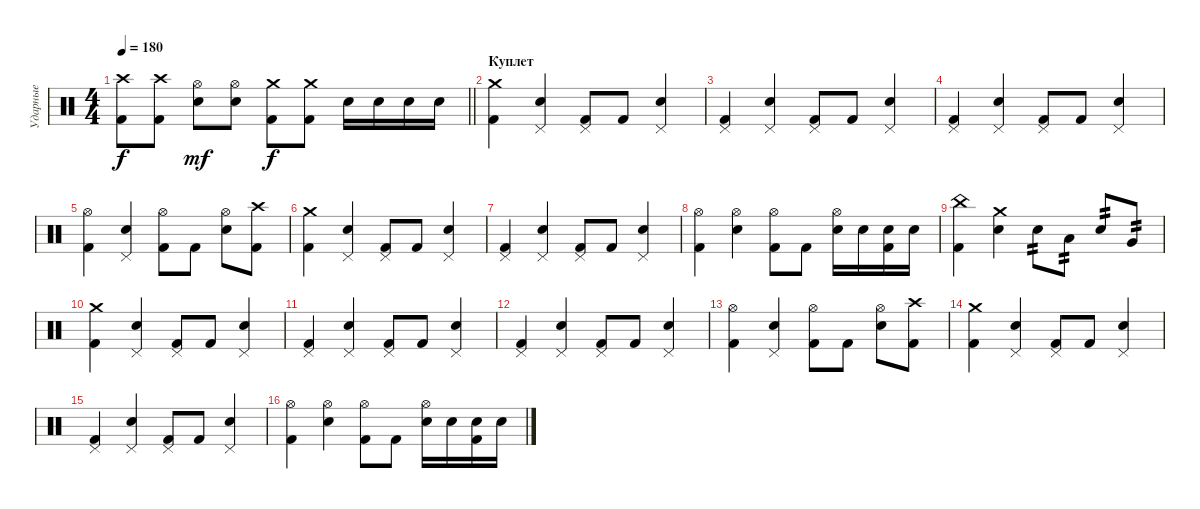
\track ("Ударные" "Ударные") {instrument percussion}
\staff {score}
\articulation defaults
\ts (4 4)
\tempo 180
\clef neutral
\barLineRight lightlight
\ks c
("Crash high (hit)" "Kick (hit) 2").8{dy f} ("Crash high (hit)" "Kick (hit) 2").8 ("Hi-Hat (open)" "Electric Snare (hit)").8{dy mf} ("Hi-Hat (open)" "Electric Snare (hit)").8 ("Crash medium (hit)" "Kick (hit) 2").8{dy f} ("Crash medium (hit)" "Kick (hit) 2").8 "Electric Snare (hit)".16 "Electric Snare (hit)".16 "Electric Snare (hit)".16 "Electric Snare (hit)".16 |
\section ("" "Куплет")
("Kick (hit) 2" "Crash medium (hit)").4 ("Electric Snare (hit)" "Pedal Hi-Hat (hit)").4 ("Kick (hit) 2" "Pedal Hi-Hat (hit)").8 "Kick (hit) 2".8 ("Electric Snare (hit)" "Pedal Hi-Hat (hit)").4 |
("Kick (hit) 2" "Pedal Hi-Hat (hit)").4 ("Electric Snare (hit)" "Pedal Hi-Hat (hit)").4 ("Kick (hit) 2" "Pedal Hi-Hat (hit)").8 "Kick (hit) 2".8 ("Electric Snare (hit)" "Pedal Hi-Hat (hit)").4 |
("Kick (hit) 2" "Pedal Hi-Hat (hit)").4 ("Electric Snare (hit)" "Pedal Hi-Hat (hit)").4 ("Kick (hit) 2" "Pedal Hi-Hat (hit)").8 "Kick (hit) 2".8 ("Electric Snare (hit)" "Pedal Hi-Hat (hit)").4 |
("Kick (hit) 2" "Hi-Hat (open)").4 ("Electric Snare (hit)" "Pedal Hi-Hat (hit)").4 ("Kick (hit) 2" "Hi-Hat (open)").8 "Kick (hit) 2".8 ("Electric Snare (hit)" "Hi-Hat (open)").8 ("Kick (hit) 2" "Crash high (hit)").8 |
("Kick (hit) 2" "Crash medium (hit)").4 ("Electric Snare (hit)" "Pedal Hi-Hat (hit)").4 ("Kick (hit) 2" "Pedal Hi-Hat (hit)").8 "Kick (hit) 2".8 ("Electric Snare (hit)" "Pedal Hi-Hat (hit)").4 |
("Kick (hit) 2" "Pedal Hi-Hat (hit)").4 ("Electric Snare (hit)" "Pedal Hi-Hat (hit)").4 ("Kick (hit) 2" "Pedal Hi-Hat (hit)").8 "Kick (hit) 2".8 ("Electric Snare (hit)" "Pedal Hi-Hat (hit)").4 |
("Kick (hit) 2" "Hi-Hat (open)").4 ("Electric Snare (hit)" "Hi-Hat (open)").4 ("Kick (hit) 2" "Hi-Hat (open)").8 "Kick (hit) 2".8 ("Electric Snare (hit)" "Hi-Hat (open)").16 "Electric Snare (hit)".16 ("Electric Snare (hit)" "Kick (hit) 2").16 "Electric Snare (hit)".16 |
("Kick (hit) 2" "China (hit)").4 ("Electric Snare (hit)" "Crash medium (hit)").4 "Electric Snare (hit)".8{tp 2} "Low Tom (hit)".8{tp 2} "Electric Snare (hit)".8{tp 2} "Very Low Tom (hit)".8{tp 2} |
("Kick (hit) 2" "Crash medium (hit)").4 ("Electric Snare (hit)" "Pedal Hi-Hat (hit)").4 ("Kick (hit) 2" "Pedal Hi-Hat (hit)").8 "Kick (hit) 2".8 ("Electric Snare (hit)" "Pedal Hi-Hat (hit)").4 |
("Kick (hit) 2" "Pedal Hi-Hat (hit)").4 ("Electric Snare (hit)" "Pedal Hi-Hat (hit)").4 ("Kick (hit) 2" "Pedal Hi-Hat (hit)").8 "Kick (hit) 2".8 ("Electric Snare (hit)" "Pedal Hi-Hat (hit)").4 |
("Kick (hit) 2" "Pedal Hi-Hat (hit)").4 ("Electric Snare (hit)" "Pedal Hi-Hat (hit)").4 ("Kick (hit) 2" "Pedal Hi-Hat (hit)").8 "Kick (hit) 2".8 ("Electric Snare (hit)" "Pedal Hi-Hat (hit)").4 |
("Kick (hit) 2" "Hi-Hat (open)").4 ("Electric Snare (hit)" "Pedal Hi-Hat (hit)").4 ("Kick (hit) 2" "Hi-Hat (open)").8 "Kick (hit) 2".8 ("Electric Snare (hit)" "Hi-Hat (open)").8 ("Kick (hit) 2" "Crash high (hit)").8 |
("Kick (hit) 2" "Crash medium (hit)").4 ("Electric Snare (hit)" "Pedal Hi-Hat (hit)").4 ("Kick (hit) 2" "Pedal Hi-Hat (hit)").8 "Kick (hit) 2".8 ("Electric Snare (hit)" "Pedal Hi-Hat (hit)").4 |
("Kick (hit) 2" "Pedal Hi-Hat (hit)").4 ("Electric Snare (hit)" "Pedal Hi-Hat (hit)").4 ("Kick (hit) 2" "Pedal Hi-Hat (hit)").8 "Kick (hit) 2".8 ("Electric Snare (hit)" "Pedal Hi-Hat (hit)").4 |
("Kick (hit) 2" "Hi-Hat (open)").4 ("Electric Snare (hit)" "Hi-Hat (open)").4 ("Kick (hit) 2" "Hi-Hat (open)").8 "Kick (hit) 2".8 ("Electric Snare (hit)" "Hi-Hat (open)").16 "Electric Snare (hit)".16 ("Electric Snare (hit)" "Kick (hit) 2").16 "Electric Snare (hit)".16
